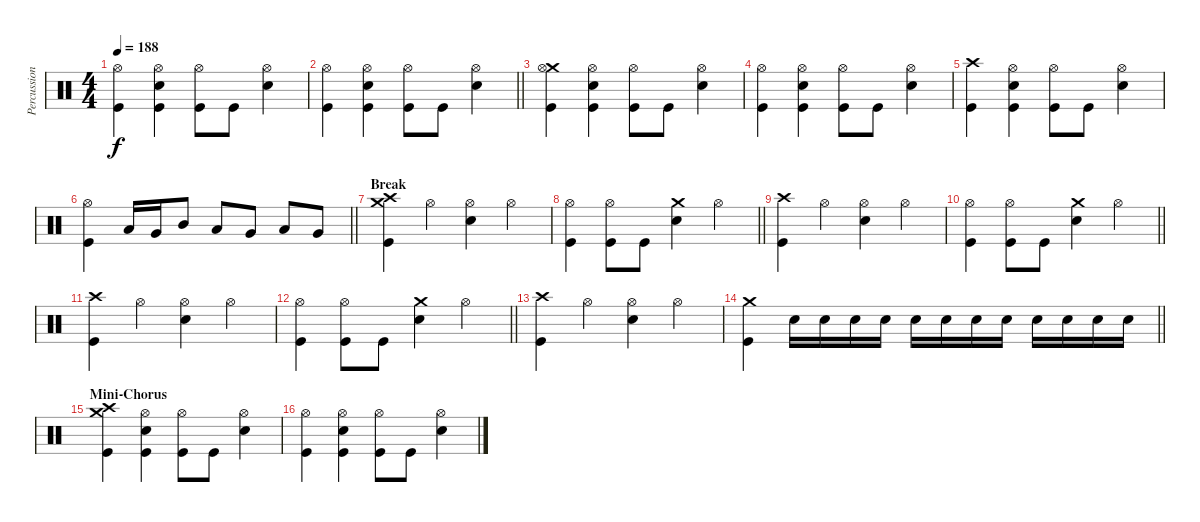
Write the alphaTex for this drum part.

\track ("Percussion" "Percussion") {instrument percussion}
\staff {score}
\articulation defaults
\ts (4 4)
\tempo 188
\clef neutral
\ks c
("Hi-Hat (open)" "Kick (hit)").4{dy f} ("Hi-Hat (open)" "Electric Snare (hit)" "Kick (hit)").4 ("Hi-Hat (open)" "Kick (hit)").8 "Kick (hit)".8 ("Hi-Hat (open)" "Electric Snare (hit)").4 |
\barLineRight lightlight
("Hi-Hat (open)" "Kick (hit)").4 ("Hi-Hat (open)" "Electric Snare (hit)" "Kick (hit)").4 ("Hi-Hat (open)" "Kick (hit)").8 "Kick (hit)".8 ("Hi-Hat (open)" "Electric Snare (hit)").4 |
("Crash medium (hit)" "Hi-Hat (open)" "Kick (hit)").4 ("Hi-Hat (open)" "Electric Snare (hit)" "Kick (hit)").4 ("Hi-Hat (open)" "Kick (hit)").8 "Kick (hit)".8 ("Hi-Hat (open)" "Electric Snare (hit)").4 |
("Hi-Hat (open)" "Kick (hit)").4 ("Hi-Hat (open)" "Electric Snare (hit)" "Kick (hit)").4 ("Hi-Hat (open)" "Kick (hit)").8 "Kick (hit)".8 ("Hi-Hat (open)" "Electric Snare (hit)").4 |
("Crash high (hit)" "Kick (hit)").4 ("Hi-Hat (open)" "Electric Snare (hit)" "Kick (hit)").4 ("Hi-Hat (open)" "Kick (hit)").8 "Kick (hit)".8 ("Hi-Hat (open)" "Electric Snare (hit)").4 |
\barLineRight lightlight
("Hi-Hat (open)" "Kick (hit)").4 "Low Tom (hit)".16 "Very Low Tom (hit)".16 "Mid Tom (hit)".8 "Low Tom (hit)".8 "Very Low Tom (hit)".8 "Low Floor Tom (hit)".8 "Very Low Tom (hit)".8 |
\section ("" "Break")
("Crash high (hit)" "Crash medium (hit)" "Kick (hit)").4 "Hi-Hat (open)".4 ("Hi-Hat (open)" "Electric Snare (hit)").4 "Hi-Hat (open)".4 |
\barLineRight lightlight
("Hi-Hat (open)" "Kick (hit)").4 ("Hi-Hat (open)" "Kick (hit)").8 "Kick (hit)".8 ("Crash medium (hit)" "Electric Snare (hit)").4 "Hi-Hat (open)".4 |
("Crash high (hit)" "Kick (hit)").4 "Hi-Hat (open)".4 ("Hi-Hat (open)" "Electric Snare (hit)").4 "Hi-Hat (open)".4 |
\barLineRight lightlight
("Hi-Hat (open)" "Kick (hit)").4 ("Hi-Hat (open)" "Kick (hit)").8 "Kick (hit)".8 ("Crash medium (hit)" "Electric Snare (hit)").4 "Hi-Hat (open)".4 |
("Crash high (hit)" "Kick (hit)").4 "Hi-Hat (open)".4 ("Hi-Hat (open)" "Electric Snare (hit)").4 "Hi-Hat (open)".4 |
\barLineRight lightlight
("Hi-Hat (open)" "Kick (hit)").4 ("Hi-Hat (open)" "Kick (hit)").8 "Kick (hit)".8 ("Crash medium (hit)" "Electric Snare (hit)").4 "Hi-Hat (open)".4 |
("Crash high (hit)" "Kick (hit)").4 "Hi-Hat (open)".4 ("Hi-Hat (open)" "Electric Snare (hit)").4 "Hi-Hat (open)".4 |
\barLineRight lightlight
("Crash medium (hit)" "Kick (hit)").4 "Electric Snare (hit)".16 "Electric Snare (hit)".16 "Electric Snare (hit)".16 "Electric Snare (hit)".16 "Electric Snare (hit)".16 "Electric Snare (hit)".16 "Electric Snare (hit)".16 "Electric Snare (hit)".16 "Electric Snare (hit)".16 "Electric Snare (hit)".16 "Electric Snare (hit)".16 "Electric Snare (hit)".16 |
\section ("" "Mini-Chorus")
("Crash high (hit)" "Crash medium (hit)" "Kick (hit)").4 ("Hi-Hat (open)" "Electric Snare (hit)" "Kick (hit)").4 ("Hi-Hat (open)" "Kick (hit)").8 "Kick (hit)".8 ("Hi-Hat (open)" "Electric Snare (hit)").4 |
("Hi-Hat (open)" "Kick (hit)").4 ("Hi-Hat (open)" "Electric Snare (hit)" "Kick (hit)").4 ("Hi-Hat (open)" "Kick (hit)").8 "Kick (hit)".8 ("Hi-Hat (open)" "Electric Snare (hit)").4
